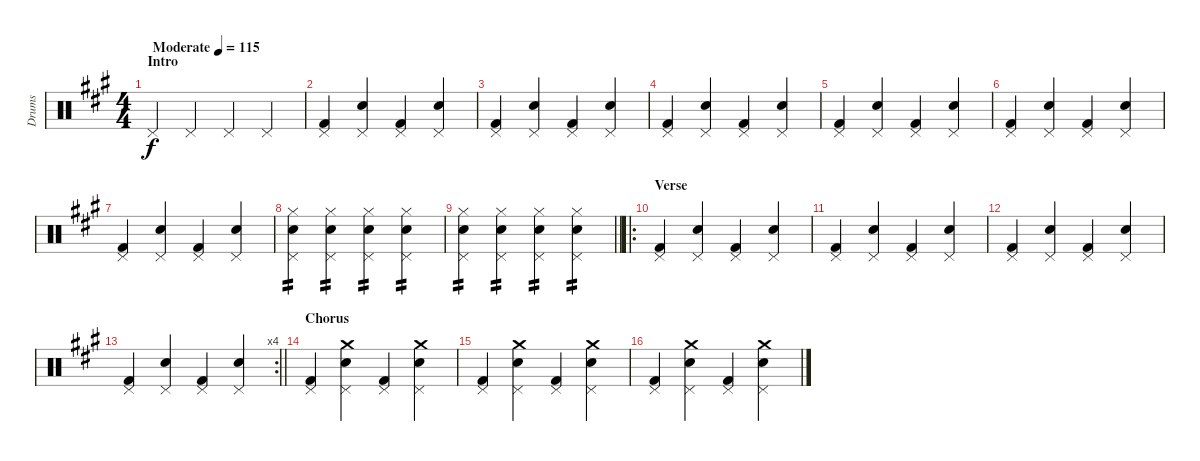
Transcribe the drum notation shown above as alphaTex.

\track ("Drums" "Drums") {instrument percussion}
\staff {score}
\articulation defaults
\ts (4 4)
\section ("" "Intro")
\tempo (115 "Moderate")
\clef neutral
\ks a "Pedal Hi-Hat (hit)".4{dy f} "Pedal Hi-Hat (hit)".4 "Pedal Hi-Hat (hit)".4 "Pedal Hi-Hat (hit)".4
|
("Kick (hit) 2" "Pedal Hi-Hat (hit)").4 ("Snare (hit) 2" "Pedal Hi-Hat (hit)").4 ("Kick (hit) 2" "Pedal Hi-Hat (hit)").4 ("Snare (hit) 2" "Pedal Hi-Hat (hit)").4 |
("Kick (hit) 2" "Pedal Hi-Hat (hit)").4 ("Snare (hit) 2" "Pedal Hi-Hat (hit)").4 ("Kick (hit) 2" "Pedal Hi-Hat (hit)").4 ("Snare (hit) 2" "Pedal Hi-Hat (hit)").4 |
("Kick (hit) 2" "Pedal Hi-Hat (hit)").4 ("Snare (hit) 2" "Pedal Hi-Hat (hit)").4 ("Kick (hit) 2" "Pedal Hi-Hat (hit)").4 ("Snare (hit) 2" "Pedal Hi-Hat (hit)").4 |
("Kick (hit) 2" "Pedal Hi-Hat (hit)").4 ("Snare (hit) 2" "Pedal Hi-Hat (hit)").4 ("Kick (hit) 2" "Pedal Hi-Hat (hit)").4 ("Snare (hit) 2" "Pedal Hi-Hat (hit)").4 |
("Kick (hit) 2" "Pedal Hi-Hat (hit)").4 ("Snare (hit) 2" "Pedal Hi-Hat (hit)").4 ("Kick (hit) 2" "Pedal Hi-Hat (hit)").4 ("Snare (hit) 2" "Pedal Hi-Hat (hit)").4 |
("Kick (hit) 2" "Pedal Hi-Hat (hit)").4 ("Snare (hit) 2" "Pedal Hi-Hat (hit)").4 ("Kick (hit) 2" "Pedal Hi-Hat (hit)").4 ("Snare (hit) 2" "Pedal Hi-Hat (hit)").4 |
("Snare (hit) 2" "Pedal Hi-Hat (hit)" "Hi-Hat (closed)").4{tp 2} ("Snare (hit) 2" "Pedal Hi-Hat (hit)" "Hi-Hat (closed)").4{tp 2} ("Snare (hit) 2" "Pedal Hi-Hat (hit)" "Hi-Hat (closed)").4{tp 2} ("Snare (hit) 2" "Pedal Hi-Hat (hit)" "Hi-Hat (closed)").4{tp 2} |
\barLineRight lightlight
("Snare (hit) 2" "Pedal Hi-Hat (hit)" "Hi-Hat (closed)").4{tp 2} ("Snare (hit) 2" "Pedal Hi-Hat (hit)" "Hi-Hat (closed)").4{tp 2} ("Snare (hit) 2" "Pedal Hi-Hat (hit)" "Hi-Hat (closed)").4{tp 2} ("Snare (hit) 2" "Pedal Hi-Hat (hit)" "Hi-Hat (closed)").4{tp 2} |
\ro
\section ("" "Verse")
("Kick (hit) 2" "Pedal Hi-Hat (hit)").4 ("Snare (hit) 2" "Pedal Hi-Hat (hit)").4 ("Kick (hit) 2" "Pedal Hi-Hat (hit)").4 ("Snare (hit) 2" "Pedal Hi-Hat (hit)").4 |
("Kick (hit) 2" "Pedal Hi-Hat (hit)").4 ("Snare (hit) 2" "Pedal Hi-Hat (hit)").4 ("Kick (hit) 2" "Pedal Hi-Hat (hit)").4 ("Snare (hit) 2" "Pedal Hi-Hat (hit)").4 |
("Kick (hit) 2" "Pedal Hi-Hat (hit)").4 ("Snare (hit) 2" "Pedal Hi-Hat (hit)").4 ("Kick (hit) 2" "Pedal Hi-Hat (hit)").4 ("Snare (hit) 2" "Pedal Hi-Hat (hit)").4 |
\rc 4
\barLineRight lightlight
("Kick (hit) 2" "Pedal Hi-Hat (hit)").4 ("Snare (hit) 2" "Pedal Hi-Hat (hit)").4 ("Kick (hit) 2" "Pedal Hi-Hat (hit)").4 ("Snare (hit) 2" "Pedal Hi-Hat (hit)").4 |
\section ("" "Chorus")
("Kick (hit) 2" "Pedal Hi-Hat (hit)").4 ("Snare (hit) 2" "Pedal Hi-Hat (hit)" "Crash medium (hit)").4 ("Kick (hit) 2" "Pedal Hi-Hat (hit)").4 ("Snare (hit) 2" "Pedal Hi-Hat (hit)" "Crash medium (hit)").4 |
("Kick (hit) 2" "Pedal Hi-Hat (hit)").4 ("Snare (hit) 2" "Pedal Hi-Hat (hit)" "Crash medium (hit)").4 ("Kick (hit) 2" "Pedal Hi-Hat (hit)").4 ("Snare (hit) 2" "Pedal Hi-Hat (hit)" "Crash medium (hit)").4 |
("Kick (hit) 2" "Pedal Hi-Hat (hit)").4 ("Snare (hit) 2" "Pedal Hi-Hat (hit)" "Crash medium (hit)").4 ("Kick (hit) 2" "Pedal Hi-Hat (hit)").4 ("Snare (hit) 2" "Pedal Hi-Hat (hit)" "Crash medium (hit)").4
